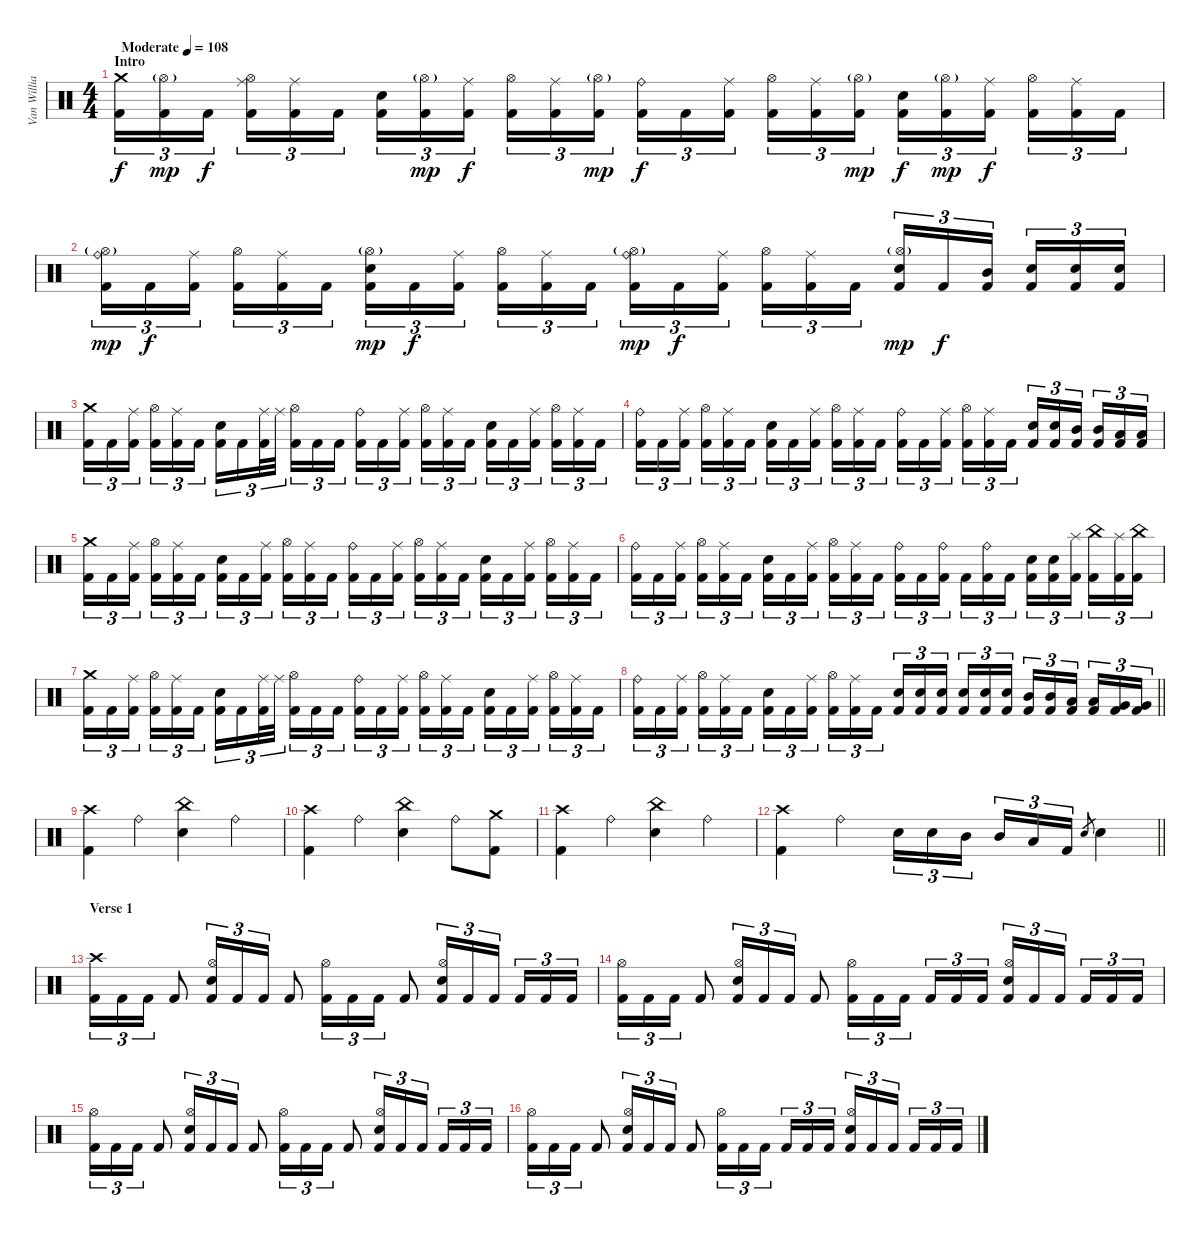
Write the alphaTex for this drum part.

\track ("Van Williams" "Van Willia") {instrument percussion}
\staff {score}
\articulation defaults
\ts (4 4)
\section ("" "Intro")
\tempo (108 "Moderate")
\clef neutral
\ks c
("Crash medium (hit)" "Kick (hit) 2").16{tu (3 2) dy f} ("Hi-Hat (open)"{g} "Kick (hit) 2").16{tu (3 2) dy mp} "Kick (hit) 2".16{tu (3 2) dy f beam splitsecondary} ("Ride (middle)" "Hi-Hat (open)" "Kick (hit) 2").16{tu (3 2)} ("Ride (middle)" "Kick (hit) 2").16{tu (3 2)} "Kick (hit) 2".16{tu (3 2)} ("Snare (hit) 2" "Kick (hit) 2").16{tu (3 2)} ("Hi-Hat (open)"{g} "Kick (hit) 2").16{tu (3 2) dy mp} ("Ride (middle)" "Kick (hit) 2").16{tu (3 2) dy f beam splitsecondary} ("Hi-Hat (open)" "Kick (hit) 2").16{tu (3 2)} ("Ride (middle)" "Kick (hit) 2").16{tu (3 2)} ("Hi-Hat (open)"{g} "Kick (hit) 2").16{tu (3 2) dy mp} ("Ride (bell)" "Kick (hit) 2").16{tu (3 2) dy f} "Kick (hit) 2".16{tu (3 2)} ("Ride (middle)" "Kick (hit) 2").16{tu (3 2) beam splitsecondary} ("Hi-Hat (open)" "Kick (hit) 2").16{tu (3 2)} ("Ride (middle)" "Kick (hit) 2").16{tu (3 2)} ("Hi-Hat (open)"{g} "Kick (hit) 2").16{tu (3 2) dy mp} ("Snare (hit) 2" "Kick (hit) 2").16{tu (3 2) dy f} ("Hi-Hat (open)"{g} "Kick (hit) 2").16{tu (3 2) dy mp} ("Ride (middle)" "Kick (hit) 2").16{tu (3 2) dy f beam splitsecondary} ("Hi-Hat (open)" "Kick (hit) 2").16{tu (3 2)} ("Ride (middle)" "Kick (hit) 2").16{tu (3 2)} "Kick (hit) 2".16{tu (3 2)} |
("Ride (bell)" "Hi-Hat (open)"{g} "Kick (hit) 2").16{tu (3 2) dy mp} "Kick (hit) 2".16{tu (3 2) dy f} ("Ride (middle)" "Kick (hit) 2").16{tu (3 2) beam splitsecondary} ("Hi-Hat (open)" "Kick (hit) 2").16{tu (3 2)} ("Ride (middle)" "Kick (hit) 2").16{tu (3 2)} "Kick (hit) 2".16{tu (3 2)} ("Hi-Hat (open)"{g} "Snare (hit) 2" "Kick (hit) 2").16{tu (3 2) dy mp} "Kick (hit) 2".16{tu (3 2) dy f} ("Ride (middle)" "Kick (hit) 2").16{tu (3 2) beam splitsecondary} ("Hi-Hat (open)" "Kick (hit) 2").16{tu (3 2)} ("Ride (middle)" "Kick (hit) 2").16{tu (3 2)} "Kick (hit) 2".16{tu (3 2)} ("Ride (bell)" "Hi-Hat (open)"{g} "Kick (hit) 2").16{tu (3 2) dy mp} "Kick (hit) 2".16{tu (3 2) dy f} ("Ride (middle)" "Kick (hit) 2").16{tu (3 2) beam splitsecondary} ("Hi-Hat (open)" "Kick (hit) 2").16{tu (3 2)} ("Ride (middle)" "Kick (hit) 2").16{tu (3 2)} "Kick (hit) 2".16{tu (3 2)} ("Hi-Hat (open)"{g} "Snare (hit) 2" "Kick (hit) 2").16{tu (3 2) dy mp} "Kick (hit) 2".16{tu (3 2) dy f} ("Mid Tom (hit)" "Kick (hit) 2").16{tu (3 2) beam splitsecondary} ("Snare (hit) 2" "Kick (hit) 2").16{tu (3 2)} ("Snare (hit) 2" "Kick (hit) 2").16{tu (3 2)} ("Snare (hit) 2" "Kick (hit) 2").16{tu (3 2)} |
("Crash medium (hit)" "Kick (hit) 2").16{tu (3 2)} "Kick (hit) 2".16{tu (3 2)} ("Ride (middle)" "Kick (hit) 2").16{tu (3 2) beam splitsecondary} ("Hi-Hat (open)" "Kick (hit) 2").16{tu (3 2)} ("Ride (middle)" "Kick (hit) 2").16{tu (3 2)} "Kick (hit) 2".16{tu (3 2)} ("Snare (hit) 2" "Kick (hit) 2").16{tu (3 2)} "Kick (hit) 2".16{tu (3 2)} ("Ride (middle)" "Kick (hit) 2").32{tu (3 2)} "Ride (middle)".32{tu (3 2) beam splitsecondary} ("Hi-Hat (open)" "Kick (hit) 2").16{tu (3 2)} "Kick (hit) 2".16{tu (3 2)} "Kick (hit) 2".16{tu (3 2)} ("Ride (bell)" "Kick (hit) 2").16{tu (3 2)} "Kick (hit) 2".16{tu (3 2)} ("Ride (middle)" "Kick (hit) 2").16{tu (3 2) beam splitsecondary} ("Hi-Hat (open)" "Kick (hit) 2").16{tu (3 2)} ("Ride (middle)" "Kick (hit) 2").16{tu (3 2)} "Kick (hit) 2".16{tu (3 2)} ("Snare (hit) 2" "Kick (hit) 2").16{tu (3 2)} "Kick (hit) 2".16{tu (3 2)} ("Ride (middle)" "Kick (hit) 2").16{tu (3 2) beam splitsecondary} ("Hi-Hat (open)" "Kick (hit) 2").16{tu (3 2)} ("Ride (middle)" "Kick (hit) 2").16{tu (3 2)} "Kick (hit) 2".16{tu (3 2)} |
("Ride (bell)" "Kick (hit) 2").16{tu (3 2)} "Kick (hit) 2".16{tu (3 2)} ("Ride (middle)" "Kick (hit) 2").16{tu (3 2) beam splitsecondary} ("Hi-Hat (open)" "Kick (hit) 2").16{tu (3 2)} ("Ride (middle)" "Kick (hit) 2").16{tu (3 2)} "Kick (hit) 2".16{tu (3 2)} ("Snare (hit) 2" "Kick (hit) 2").16{tu (3 2)} "Kick (hit) 2".16{tu (3 2)} ("Ride (middle)" "Kick (hit) 2").16{tu (3 2) beam splitsecondary} ("Hi-Hat (open)" "Kick (hit) 2").16{tu (3 2)} ("Ride (middle)" "Kick (hit) 2").16{tu (3 2)} "Kick (hit) 2".16{tu (3 2)} ("Ride (bell)" "Kick (hit) 2").16{tu (3 2)} "Kick (hit) 2".16{tu (3 2)} ("Ride (middle)" "Kick (hit) 2").16{tu (3 2) beam splitsecondary} ("Hi-Hat (open)" "Kick (hit) 2").16{tu (3 2)} ("Ride (middle)" "Kick (hit) 2").16{tu (3 2)} "Kick (hit) 2".16{tu (3 2)} ("Snare (hit) 2" "Kick (hit) 2").16{tu (3 2)} ("Snare (hit) 2" "Kick (hit) 2").16{tu (3 2)} ("Mid Tom (hit)" "Kick (hit) 2").16{tu (3 2) beam splitsecondary} ("Mid Tom (hit)" "Kick (hit) 2").16{tu (3 2)} ("Low Tom (hit)" "Kick (hit) 2").16{tu (3 2)} ("Low Tom (hit)" "Kick (hit) 2").16{tu (3 2)} |
("Crash medium (hit)" "Kick (hit) 2").16{tu (3 2)} "Kick (hit) 2".16{tu (3 2)} ("Ride (middle)" "Kick (hit) 2").16{tu (3 2) beam splitsecondary} ("Hi-Hat (open)" "Kick (hit) 2").16{tu (3 2)} ("Ride (middle)" "Kick (hit) 2").16{tu (3 2)} "Kick (hit) 2".16{tu (3 2)} ("Snare (hit) 2" "Kick (hit) 2").16{tu (3 2)} "Kick (hit) 2".16{tu (3 2)} ("Ride (middle)" "Kick (hit) 2").16{tu (3 2) beam splitsecondary} ("Hi-Hat (open)" "Kick (hit) 2").16{tu (3 2)} ("Ride (middle)" "Kick (hit) 2").16{tu (3 2)} "Kick (hit) 2".16{tu (3 2)} ("Ride (bell)" "Kick (hit) 2").16{tu (3 2)} "Kick (hit) 2".16{tu (3 2)} ("Ride (middle)" "Kick (hit) 2").16{tu (3 2) beam splitsecondary} ("Hi-Hat (open)" "Kick (hit) 2").16{tu (3 2)} ("Ride (middle)" "Kick (hit) 2").16{tu (3 2)} "Kick (hit) 2".16{tu (3 2)} ("Snare (hit) 2" "Kick (hit) 2").16{tu (3 2)} "Kick (hit) 2".16{tu (3 2)} ("Ride (middle)" "Kick (hit) 2").16{tu (3 2) beam splitsecondary} ("Hi-Hat (open)" "Kick (hit) 2").16{tu (3 2)} ("Ride (middle)" "Kick (hit) 2").16{tu (3 2)} "Kick (hit) 2".16{tu (3 2)} |
("Ride (bell)" "Kick (hit) 2").16{tu (3 2)} "Kick (hit) 2".16{tu (3 2)} ("Ride (middle)" "Kick (hit) 2").16{tu (3 2) beam splitsecondary} ("Hi-Hat (open)" "Kick (hit) 2").16{tu (3 2)} ("Ride (middle)" "Kick (hit) 2").16{tu (3 2)} "Kick (hit) 2".16{tu (3 2)} ("Snare (hit) 2" "Kick (hit) 2").16{tu (3 2)} "Kick (hit) 2".16{tu (3 2)} ("Ride (middle)" "Kick (hit) 2").16{tu (3 2) beam splitsecondary} ("Hi-Hat (open)" "Kick (hit) 2").16{tu (3 2)} ("Ride (middle)" "Kick (hit) 2").16{tu (3 2)} "Kick (hit) 2".16{tu (3 2)} ("Ride (bell)" "Kick (hit) 2").16{tu (3 2)} "Kick (hit) 2".16{tu (3 2)} ("Ride (bell)" "Kick (hit) 2").16{tu (3 2) beam splitsecondary} "Kick (hit) 2".16{tu (3 2)} ("Ride (bell)" "Kick (hit) 2").16{tu (3 2)} "Kick (hit) 2".16{tu (3 2)} ("Snare (hit) 2" "Kick (hit) 2").16{tu (3 2)} ("Snare (hit) 2" "Kick (hit) 2").16{tu (3 2)} ("Splash (hit)" "Kick (hit) 2").16{tu (3 2) beam splitsecondary} ("China (hit)" "Kick (hit) 2").16{tu (3 2)} ("Splash (hit)" "Kick (hit) 2").16{tu (3 2)} ("China (hit)" "Kick (hit) 2").16{tu (3 2)} |
("Crash medium (hit)" "Kick (hit) 2").16{tu (3 2)} "Kick (hit) 2".16{tu (3 2)} ("Ride (middle)" "Kick (hit) 2").16{tu (3 2) beam splitsecondary} ("Hi-Hat (open)" "Kick (hit) 2").16{tu (3 2)} ("Ride (middle)" "Kick (hit) 2").16{tu (3 2)} "Kick (hit) 2".16{tu (3 2)} ("Snare (hit) 2" "Kick (hit) 2").16{tu (3 2)} "Kick (hit) 2".16{tu (3 2)} ("Ride (middle)" "Kick (hit) 2").32{tu (3 2)} "Ride (middle)".32{tu (3 2) beam splitsecondary} ("Hi-Hat (open)" "Kick (hit) 2").16{tu (3 2)} "Kick (hit) 2".16{tu (3 2)} "Kick (hit) 2".16{tu (3 2)} ("Ride (bell)" "Kick (hit) 2").16{tu (3 2)} "Kick (hit) 2".16{tu (3 2)} ("Ride (middle)" "Kick (hit) 2").16{tu (3 2) beam splitsecondary} ("Hi-Hat (open)" "Kick (hit) 2").16{tu (3 2)} ("Ride (middle)" "Kick (hit) 2").16{tu (3 2)} "Kick (hit) 2".16{tu (3 2)} ("Snare (hit) 2" "Kick (hit) 2").16{tu (3 2)} "Kick (hit) 2".16{tu (3 2)} ("Ride (middle)" "Kick (hit) 2").16{tu (3 2) beam splitsecondary} ("Hi-Hat (open)" "Kick (hit) 2").16{tu (3 2)} ("Ride (middle)" "Kick (hit) 2").16{tu (3 2)} "Kick (hit) 2".16{tu (3 2)} |
\barLineRight lightlight
("Ride (bell)" "Kick (hit) 2").16{tu (3 2)} "Kick (hit) 2".16{tu (3 2)} ("Ride (middle)" "Kick (hit) 2").16{tu (3 2) beam splitsecondary} ("Hi-Hat (open)" "Kick (hit) 2").16{tu (3 2)} ("Ride (middle)" "Kick (hit) 2").16{tu (3 2)} "Kick (hit) 2".16{tu (3 2)} ("Snare (hit) 2" "Kick (hit) 2").16{tu (3 2)} "Kick (hit) 2".16{tu (3 2)} ("Ride (middle)" "Kick (hit) 2").16{tu (3 2) beam splitsecondary} ("Hi-Hat (open)" "Kick (hit) 2").16{tu (3 2)} ("Ride (middle)" "Kick (hit) 2").16{tu (3 2)} "Kick (hit) 2".16{tu (3 2)} ("Snare (hit) 2" "Kick (hit) 2").16{tu (3 2)} ("Snare (hit) 2" "Kick (hit) 2").16{tu (3 2)} ("Snare (hit) 2" "Kick (hit) 2").16{tu (3 2) beam splitsecondary} ("Snare (hit) 2" "Kick (hit) 2").16{tu (3 2)} ("Snare (hit) 2" "Kick (hit) 2").16{tu (3 2)} ("Snare (hit) 2" "Kick (hit) 2").16{tu (3 2)} ("Mid Tom (hit)" "Kick (hit) 2").16{tu (3 2)} ("Mid Tom (hit)" "Kick (hit) 2").16{tu (3 2)} ("Low Tom (hit)" "Kick (hit) 2").16{tu (3 2) beam splitsecondary} ("Low Tom (hit)" "Kick (hit) 2").16{tu (3 2)} ("Very Low Tom (hit)" "Kick (hit) 2").16{tu (3 2)} ("Very Low Tom (hit)" "Kick (hit) 2").16{tu (3 2)} |
("Crash high (hit)" "Kick (hit) 2").4 "Ride (bell)".4 ("China (hit)" "Snare (hit) 2").4 "Ride (bell)".4 |
("Crash high (hit)" "Kick (hit) 2").4 "Ride (bell)".4 ("China (hit)" "Snare (hit) 2").4 "Ride (bell)".8 ("Crash medium (hit)" "Kick (hit) 2").8 |
("Crash high (hit)" "Kick (hit) 2").4 "Ride (bell)".4 ("China (hit)" "Snare (hit) 2").4 "Ride (bell)".4 |
\barLineRight lightlight
("Crash high (hit)" "Kick (hit) 2").4 "Ride (bell)".4 "Snare (hit) 2".16{tu (3 2)} "Snare (hit) 2".16{tu (3 2)} "Mid Tom (hit)".16{tu (3 2) beam splitsecondary} "Mid Tom (hit)".16{tu (3 2)} "Low Tom (hit)".16{tu (3 2)} "Kick (hit) 2".16{tu (3 2)} "Snare (hit) 2".8{gr} "Snare (hit) 2".4 |
\section ("" "Verse 1")
("Crash high (hit)" "Kick (hit) 2").16{tu (3 2)} "Kick (hit) 2".16{tu (3 2)} "Kick (hit) 2".16{tu (3 2)} "Kick (hit) 2".8 ("Hi-Hat (open)" "Snare (hit) 2" "Kick (hit) 2").16{tu (3 2)} "Kick (hit) 2".16{tu (3 2)} "Kick (hit) 2".16{tu (3 2)} "Kick (hit) 2".8 ("Hi-Hat (open)" "Kick (hit) 2").16{tu (3 2)} "Kick (hit) 2".16{tu (3 2)} "Kick (hit) 2".16{tu (3 2)} "Kick (hit) 2".8 ("Hi-Hat (open)" "Snare (hit) 2" "Kick (hit) 2").16{tu (3 2)} "Kick (hit) 2".16{tu (3 2)} "Kick (hit) 2".16{tu (3 2) beam splitsecondary} "Kick (hit) 2".16{tu (3 2)} "Kick (hit) 2".16{tu (3 2)} "Kick (hit) 2".16{tu (3 2)} |
("Hi-Hat (open)" "Kick (hit) 2").16{tu (3 2)} "Kick (hit) 2".16{tu (3 2)} "Kick (hit) 2".16{tu (3 2)} "Kick (hit) 2".8 ("Hi-Hat (open)" "Snare (hit) 2" "Kick (hit) 2").16{tu (3 2)} "Kick (hit) 2".16{tu (3 2)} "Kick (hit) 2".16{tu (3 2)} "Kick (hit) 2".8 ("Hi-Hat (open)" "Kick (hit) 2").16{tu (3 2)} "Kick (hit) 2".16{tu (3 2)} "Kick (hit) 2".16{tu (3 2) beam splitsecondary} "Kick (hit) 2".16{tu (3 2)} "Kick (hit) 2".16{tu (3 2)} "Kick (hit) 2".16{tu (3 2)} ("Hi-Hat (open)" "Snare (hit) 2" "Kick (hit) 2").16{tu (3 2)} "Kick (hit) 2".16{tu (3 2)} "Kick (hit) 2".16{tu (3 2) beam splitsecondary} "Kick (hit) 2".16{tu (3 2)} "Kick (hit) 2".16{tu (3 2)} "Kick (hit) 2".16{tu (3 2)} |
("Hi-Hat (open)" "Kick (hit) 2").16{tu (3 2)} "Kick (hit) 2".16{tu (3 2)} "Kick (hit) 2".16{tu (3 2)} "Kick (hit) 2".8 ("Hi-Hat (open)" "Snare (hit) 2" "Kick (hit) 2").16{tu (3 2)} "Kick (hit) 2".16{tu (3 2)} "Kick (hit) 2".16{tu (3 2)} "Kick (hit) 2".8 ("Hi-Hat (open)" "Kick (hit) 2").16{tu (3 2)} "Kick (hit) 2".16{tu (3 2)} "Kick (hit) 2".16{tu (3 2)} "Kick (hit) 2".8 ("Hi-Hat (open)" "Snare (hit) 2" "Kick (hit) 2").16{tu (3 2)} "Kick (hit) 2".16{tu (3 2)} "Kick (hit) 2".16{tu (3 2) beam splitsecondary} "Kick (hit) 2".16{tu (3 2)} "Kick (hit) 2".16{tu (3 2)} "Kick (hit) 2".16{tu (3 2)} |
("Hi-Hat (open)" "Kick (hit) 2").16{tu (3 2)} "Kick (hit) 2".16{tu (3 2)} "Kick (hit) 2".16{tu (3 2)} "Kick (hit) 2".8 ("Hi-Hat (open)" "Snare (hit) 2" "Kick (hit) 2").16{tu (3 2)} "Kick (hit) 2".16{tu (3 2)} "Kick (hit) 2".16{tu (3 2)} "Kick (hit) 2".8 ("Hi-Hat (open)" "Kick (hit) 2").16{tu (3 2)} "Kick (hit) 2".16{tu (3 2)} "Kick (hit) 2".16{tu (3 2) beam splitsecondary} "Kick (hit) 2".16{tu (3 2)} "Kick (hit) 2".16{tu (3 2)} "Kick (hit) 2".16{tu (3 2)} ("Hi-Hat (open)" "Snare (hit) 2" "Kick (hit) 2").16{tu (3 2)} "Kick (hit) 2".16{tu (3 2)} "Kick (hit) 2".16{tu (3 2) beam splitsecondary} "Kick (hit) 2".16{tu (3 2)} "Kick (hit) 2".16{tu (3 2)} "Kick (hit) 2".16{tu (3 2)}
